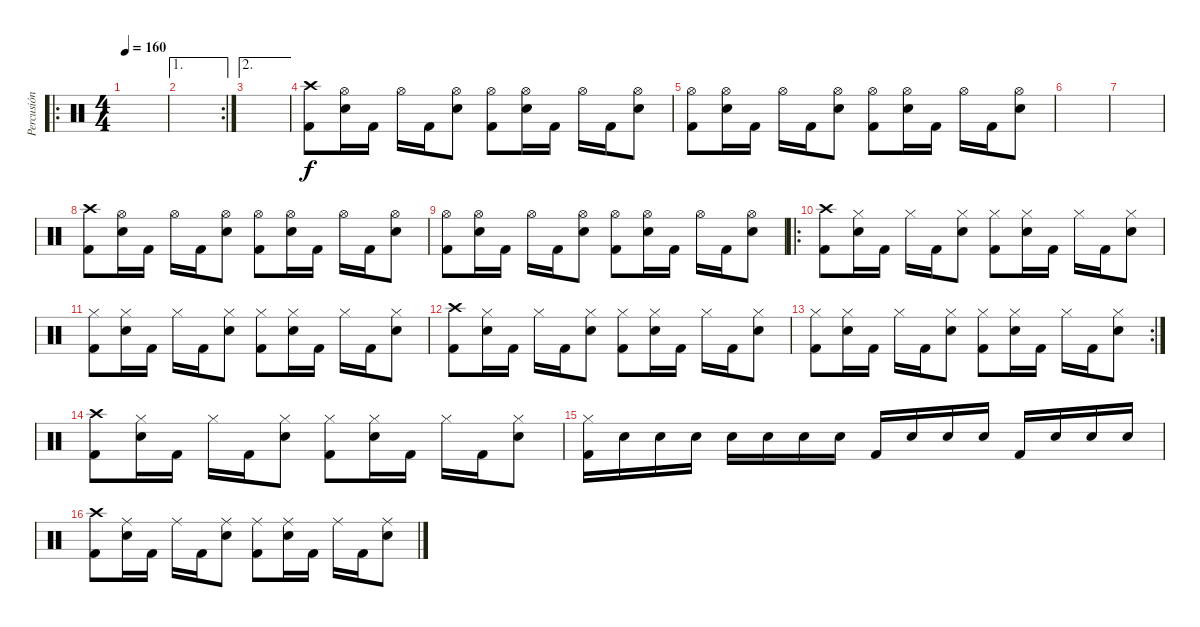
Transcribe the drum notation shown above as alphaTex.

\track ("Percusión" "Percusión") {instrument percussion}
\staff {score}
\articulation defaults
\ro
\ts (4 4)
\tempo 160
\clef neutral
\ks c
|
\ae 1
\rc 2
|
\ae 2
|
("Crash high (hit)" "Kick (hit) 2").8 ("Hi-Hat (open)" "Electric Snare (hit)").16 "Kick (hit) 2".16 "Hi-Hat (open)".16 "Kick (hit) 2".16 ("Hi-Hat (open)" "Electric Snare (hit)").8 ("Hi-Hat (open)" "Kick (hit) 2").8 ("Hi-Hat (open)" "Electric Snare (hit)").16 "Kick (hit) 2".16 "Hi-Hat (open)".16 "Kick (hit) 2".16 ("Hi-Hat (open)" "Electric Snare (hit)").8 |
("Hi-Hat (open)" "Kick (hit) 2").8 ("Hi-Hat (open)" "Electric Snare (hit)").16 "Kick (hit) 2".16 "Hi-Hat (open)".16 "Kick (hit) 2".16 ("Hi-Hat (open)" "Electric Snare (hit)").8 ("Hi-Hat (open)" "Kick (hit) 2").8 ("Hi-Hat (open)" "Electric Snare (hit)").16 "Kick (hit) 2".16 "Hi-Hat (open)".16 "Kick (hit) 2".16 ("Hi-Hat (open)" "Electric Snare (hit)").8 |
|
|
("Crash high (hit)" "Kick (hit) 2").8 ("Hi-Hat (open)" "Electric Snare (hit)").16 "Kick (hit) 2".16 "Hi-Hat (open)".16 "Kick (hit) 2".16 ("Hi-Hat (open)" "Electric Snare (hit)").8 ("Hi-Hat (open)" "Kick (hit) 2").8 ("Hi-Hat (open)" "Electric Snare (hit)").16 "Kick (hit) 2".16 "Hi-Hat (open)".16 "Kick (hit) 2".16 ("Hi-Hat (open)" "Electric Snare (hit)").8 |
("Hi-Hat (open)" "Kick (hit) 2").8 ("Hi-Hat (open)" "Electric Snare (hit)").16 "Kick (hit) 2".16 "Hi-Hat (open)".16 "Kick (hit) 2".16 ("Hi-Hat (open)" "Electric Snare (hit)").8 ("Hi-Hat (open)" "Kick (hit) 2").8 ("Hi-Hat (open)" "Electric Snare (hit)").16 "Kick (hit) 2".16 "Hi-Hat (open)".16 "Kick (hit) 2".16 ("Hi-Hat (open)" "Electric Snare (hit)").8 |
\ro
("Crash high (hit)" "Kick (hit) 2").8 ("Hi-Hat (closed)" "Electric Snare (hit)").16 "Kick (hit) 2".16 "Hi-Hat (closed)".16 "Kick (hit) 2".16 ("Hi-Hat (closed)" "Electric Snare (hit)").8 ("Hi-Hat (closed)" "Kick (hit) 2").8 ("Hi-Hat (closed)" "Electric Snare (hit)").16 "Kick (hit) 2".16 "Hi-Hat (closed)".16 "Kick (hit) 2".16 ("Hi-Hat (closed)" "Electric Snare (hit)").8 |
("Hi-Hat (closed)" "Kick (hit) 2").8 ("Hi-Hat (closed)" "Electric Snare (hit)").16 "Kick (hit) 2".16 "Hi-Hat (closed)".16 "Kick (hit) 2".16 ("Hi-Hat (closed)" "Electric Snare (hit)").8 ("Hi-Hat (closed)" "Kick (hit) 2").8 ("Hi-Hat (closed)" "Electric Snare (hit)").16 "Kick (hit) 2".16 "Hi-Hat (closed)".16 "Kick (hit) 2".16 ("Hi-Hat (closed)" "Electric Snare (hit)").8 |
("Crash high (hit)" "Kick (hit) 2").8 ("Hi-Hat (closed)" "Electric Snare (hit)").16 "Kick (hit) 2".16 "Hi-Hat (closed)".16 "Kick (hit) 2".16 ("Hi-Hat (closed)" "Electric Snare (hit)").8 ("Hi-Hat (closed)" "Kick (hit) 2").8 ("Hi-Hat (closed)" "Electric Snare (hit)").16 "Kick (hit) 2".16 "Hi-Hat (closed)".16 "Kick (hit) 2".16 ("Hi-Hat (closed)" "Electric Snare (hit)").8 |
\rc 2
("Hi-Hat (closed)" "Kick (hit) 2").8 ("Hi-Hat (closed)" "Electric Snare (hit)").16 "Kick (hit) 2".16 "Hi-Hat (closed)".16 "Kick (hit) 2".16 ("Hi-Hat (closed)" "Electric Snare (hit)").8 ("Hi-Hat (closed)" "Kick (hit) 2").8 ("Hi-Hat (closed)" "Electric Snare (hit)").16 "Kick (hit) 2".16 "Hi-Hat (closed)".16 "Kick (hit) 2".16 ("Hi-Hat (closed)" "Electric Snare (hit)").8 |
("Crash high (hit)" "Kick (hit) 2").8 ("Hi-Hat (closed)" "Electric Snare (hit)").16 "Kick (hit) 2".16 "Hi-Hat (closed)".16 "Kick (hit) 2".16 ("Hi-Hat (closed)" "Electric Snare (hit)").8 ("Hi-Hat (closed)" "Kick (hit) 2").8 ("Hi-Hat (closed)" "Electric Snare (hit)").16 "Kick (hit) 2".16 "Hi-Hat (closed)".16 "Kick (hit) 2".16 ("Hi-Hat (closed)" "Electric Snare (hit)").8 |
("Hi-Hat (closed)" "Kick (hit) 2").16 "Electric Snare (hit)".16 "Electric Snare (hit)".16 "Electric Snare (hit)".16 "Electric Snare (hit)".16 "Electric Snare (hit)".16 "Electric Snare (hit)".16 "Electric Snare (hit)".16 "Kick (hit) 2".16 "Electric Snare (hit)".16 "Electric Snare (hit)".16 "Electric Snare (hit)".16 "Kick (hit) 2".16 "Electric Snare (hit)".16 "Electric Snare (hit)".16 "Electric Snare (hit)".16 |
("Crash high (hit)" "Kick (hit) 2").8 ("Ride (middle)" "Electric Snare (hit)").16 "Kick (hit) 2".16 "Ride (middle)".16 "Kick (hit) 2".16 ("Ride (middle)" "Electric Snare (hit)").8 ("Ride (middle)" "Kick (hit) 2").8 ("Ride (middle)" "Electric Snare (hit)").16 "Kick (hit) 2".16 "Ride (middle)".16 "Kick (hit) 2".16 ("Ride (middle)" "Electric Snare (hit)").8
